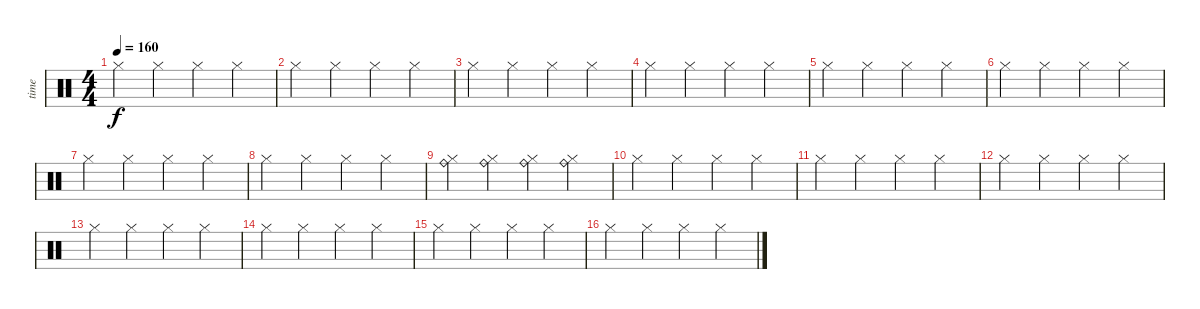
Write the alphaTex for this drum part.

\track ("time" "time") {instrument percussion}
\staff {score}
\articulation defaults
\ts (4 4)
\tempo 160
\clef neutral
\ks c "Hi-Hat (closed)".4{dy f} "Hi-Hat (closed)".4 "Hi-Hat (closed)".4 "Hi-Hat (closed)".4
|
"Hi-Hat (closed)".4 "Hi-Hat (closed)".4 "Hi-Hat (closed)".4 "Hi-Hat (closed)".4 |
"Hi-Hat (closed)".4 "Hi-Hat (closed)".4 "Hi-Hat (closed)".4 "Hi-Hat (closed)".4 |
"Hi-Hat (closed)".4 "Hi-Hat (closed)".4 "Hi-Hat (closed)".4 "Hi-Hat (closed)".4 |
"Hi-Hat (closed)".4 "Hi-Hat (closed)".4 "Hi-Hat (closed)".4 "Hi-Hat (closed)".4 |
"Hi-Hat (closed)".4 "Hi-Hat (closed)".4 "Hi-Hat (closed)".4 "Hi-Hat (closed)".4 |
"Hi-Hat (closed)".4 "Hi-Hat (closed)".4 "Hi-Hat (closed)".4 "Hi-Hat (closed)".4 |
"Hi-Hat (closed)".4 "Hi-Hat (closed)".4 "Hi-Hat (closed)".4 "Hi-Hat (closed)".4 |
("Ride (bell)" "Hi-Hat (closed)").4 ("Ride (bell)" "Hi-Hat (closed)").4 ("Ride (bell)" "Hi-Hat (closed)").4 ("Ride (bell)" "Hi-Hat (closed)").4 |
"Hi-Hat (closed)".4 "Hi-Hat (closed)".4 "Hi-Hat (closed)".4 "Hi-Hat (closed)".4 |
"Hi-Hat (closed)".4 "Hi-Hat (closed)".4 "Hi-Hat (closed)".4 "Hi-Hat (closed)".4 |
"Hi-Hat (closed)".4 "Hi-Hat (closed)".4 "Hi-Hat (closed)".4 "Hi-Hat (closed)".4 |
"Hi-Hat (closed)".4 "Hi-Hat (closed)".4 "Hi-Hat (closed)".4 "Hi-Hat (closed)".4 |
"Hi-Hat (closed)".4 "Hi-Hat (closed)".4 "Hi-Hat (closed)".4 "Hi-Hat (closed)".4 |
"Hi-Hat (closed)".4 "Hi-Hat (closed)".4 "Hi-Hat (closed)".4 "Hi-Hat (closed)".4 |
"Hi-Hat (closed)".4 "Hi-Hat (closed)".4 "Hi-Hat (closed)".4 "Hi-Hat (closed)".4
